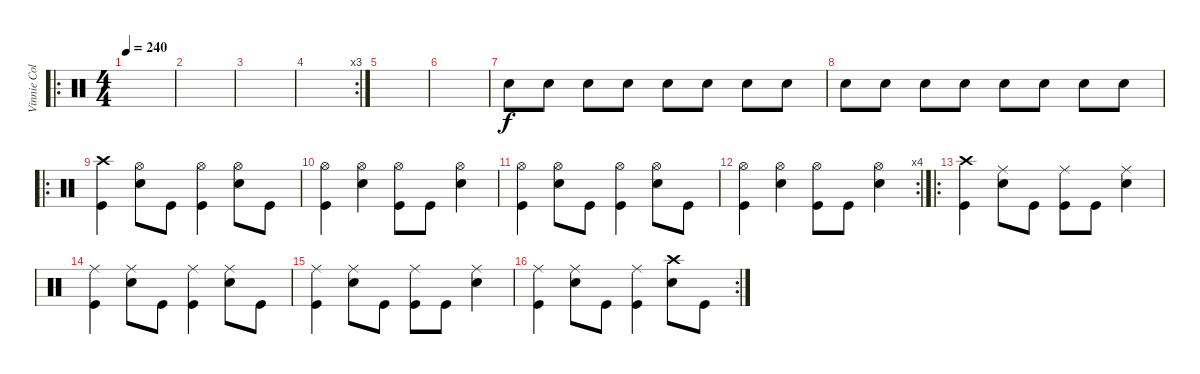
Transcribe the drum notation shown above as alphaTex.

\track ("Vinnie Colaiuta" "Vinnie Col") {instrument percussion}
\staff {score}
\articulation defaults
\ro
\ts (4 4)
\tempo 240
\clef neutral
\ks c
|
|
|
\rc 3
|
|
|
"Snare (hit) 2".8{volume 0} "Snare (hit) 2".8{volume 16} "Snare (hit) 2".8 "Snare (hit) 2".8 "Snare (hit) 2".8 "Snare (hit) 2".8 "Snare (hit) 2".8 "Snare (hit) 2".8 |
"Snare (hit) 2".8 "Snare (hit) 2".8 "Snare (hit) 2".8 "Snare (hit) 2".8 "Snare (hit) 2".8 "Snare (hit) 2".8 "Snare (hit) 2".8 "Snare (hit) 2".8 |
\ro
("Crash high (hit)" "Kick (hit)").4 ("Hi-Hat (open)" "Snare (hit) 2").8 "Kick (hit)".8 ("Hi-Hat (open)" "Kick (hit)").4 ("Hi-Hat (open)" "Snare (hit) 2").8 "Kick (hit)".8 |
("Hi-Hat (open)" "Kick (hit)").4 ("Hi-Hat (open)" "Snare (hit) 2").4 ("Hi-Hat (open)" "Kick (hit)").8 "Kick (hit)".8 ("Hi-Hat (open)" "Snare (hit) 2").4 |
("Hi-Hat (open)" "Kick (hit)").4 ("Hi-Hat (open)" "Snare (hit) 2").8 "Kick (hit)".8 ("Hi-Hat (open)" "Kick (hit)").4 ("Hi-Hat (open)" "Snare (hit) 2").8 "Kick (hit)".8 |
\rc 4
("Hi-Hat (open)" "Kick (hit)").4 ("Hi-Hat (open)" "Snare (hit) 2").4 ("Hi-Hat (open)" "Kick (hit)").8 "Kick (hit)".8 ("Hi-Hat (open)" "Snare (hit) 2").4 |
\ro
("Crash high (hit)" "Kick (hit)").4 ("Ride (middle)" "Snare (hit) 2").8 "Kick (hit)".8 ("Ride (middle)" "Kick (hit)").8 "Kick (hit)".8 ("Ride (middle)" "Snare (hit) 2").4 |
("Ride (middle)" "Kick (hit)").4 ("Ride (middle)" "Snare (hit) 2").8 "Kick (hit)".8 ("Ride (middle)" "Kick (hit)").4 ("Ride (middle)" "Snare (hit) 2").8 "Kick (hit)".8 |
("Ride (middle)" "Kick (hit)").4 ("Ride (middle)" "Snare (hit) 2").8 "Kick (hit)".8 ("Ride (middle)" "Kick (hit)").8 "Kick (hit)".8 ("Ride (middle)" "Snare (hit) 2").4 |
\rc 2
("Ride (middle)" "Kick (hit)").4 ("Ride (middle)" "Snare (hit) 2").8 "Kick (hit)".8 ("Ride (middle)" "Kick (hit)").4 ("Snare (hit) 2" "Crash high (hit)").8 "Kick (hit)".8
